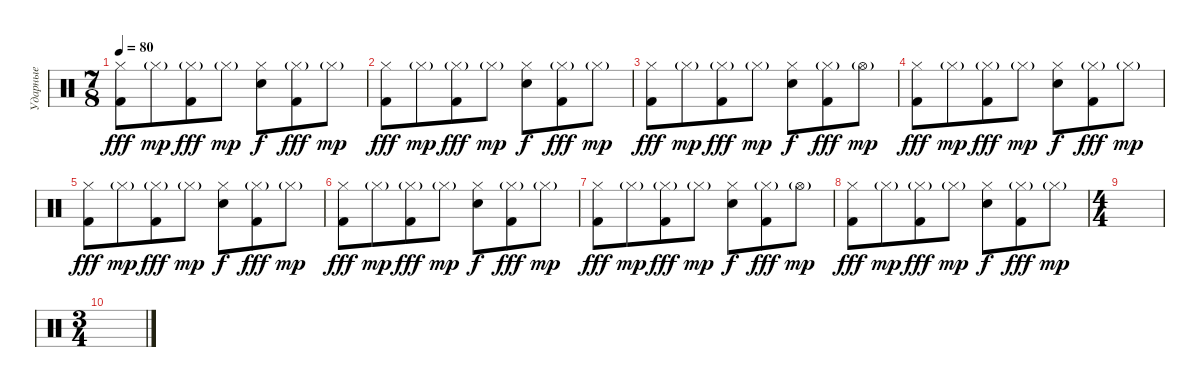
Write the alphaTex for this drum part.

\track ("Ударные" "Ударные") {instrument percussion}
\staff {score}
\articulation defaults
\ts (7 8)
\tempo 80
\clef neutral
\ks c
("Hi-Hat (closed)" "Kick (hit) 2").8{dy fff} "Hi-Hat (closed)"{g}.8{dy mp} ("Hi-Hat (closed)"{g} "Kick (hit) 2").8{dy fff} "Hi-Hat (closed)"{g}.8{dy mp} ("Hi-Hat (closed)" "Snare (hit) 2").8{dy f} ("Hi-Hat (closed)"{g} "Kick (hit) 2").8{dy fff} "Hi-Hat (closed)"{g}.8{dy mp} |
("Hi-Hat (closed)" "Kick (hit) 2").8{dy fff} "Hi-Hat (closed)"{g}.8{dy mp} ("Hi-Hat (closed)"{g} "Kick (hit) 2").8{dy fff} "Hi-Hat (closed)"{g}.8{dy mp} ("Hi-Hat (closed)" "Snare (hit) 2").8{dy f} ("Hi-Hat (closed)"{g} "Kick (hit) 2").8{dy fff} "Hi-Hat (closed)"{g}.8{dy mp} |
("Hi-Hat (closed)" "Kick (hit) 2").8{dy fff} "Hi-Hat (closed)"{g}.8{dy mp} ("Hi-Hat (closed)"{g} "Kick (hit) 2").8{dy fff} "Hi-Hat (closed)"{g}.8{dy mp} ("Hi-Hat (closed)" "Snare (hit) 2").8{dy f} ("Hi-Hat (closed)"{g} "Kick (hit) 2").8{dy fff} "Hi-Hat (open)"{g}.8{dy mp} |
("Hi-Hat (closed)" "Kick (hit) 2").8{dy fff} "Hi-Hat (closed)"{g}.8{dy mp} ("Hi-Hat (closed)"{g} "Kick (hit) 2").8{dy fff} "Hi-Hat (closed)"{g}.8{dy mp} ("Hi-Hat (closed)" "Snare (hit) 2").8{dy f} ("Hi-Hat (closed)"{g} "Kick (hit) 2").8{dy fff} "Hi-Hat (closed)"{g}.8{dy mp} |
("Hi-Hat (closed)" "Kick (hit) 2").8{dy fff} "Hi-Hat (closed)"{g}.8{dy mp} ("Hi-Hat (closed)"{g} "Kick (hit) 2").8{dy fff} "Hi-Hat (closed)"{g}.8{dy mp} ("Hi-Hat (closed)" "Snare (hit) 2").8{dy f} ("Hi-Hat (closed)"{g} "Kick (hit) 2").8{dy fff} "Hi-Hat (closed)"{g}.8{dy mp} |
("Hi-Hat (closed)" "Kick (hit) 2").8{dy fff} "Hi-Hat (closed)"{g}.8{dy mp} ("Hi-Hat (closed)"{g} "Kick (hit) 2").8{dy fff} "Hi-Hat (closed)"{g}.8{dy mp} ("Hi-Hat (closed)" "Snare (hit) 2").8{dy f} ("Hi-Hat (closed)"{g} "Kick (hit) 2").8{dy fff} "Hi-Hat (closed)"{g}.8{dy mp} |
("Hi-Hat (closed)" "Kick (hit) 2").8{dy fff} "Hi-Hat (closed)"{g}.8{dy mp} ("Hi-Hat (closed)"{g} "Kick (hit) 2").8{dy fff} "Hi-Hat (closed)"{g}.8{dy mp} ("Hi-Hat (closed)" "Snare (hit) 2").8{dy f} ("Hi-Hat (closed)"{g} "Kick (hit) 2").8{dy fff} "Hi-Hat (open)"{g}.8{dy mp} |
("Hi-Hat (closed)" "Kick (hit) 2").8{dy fff} "Hi-Hat (closed)"{g}.8{dy mp} ("Hi-Hat (closed)"{g} "Kick (hit) 2").8{dy fff} "Hi-Hat (closed)"{g}.8{dy mp} ("Hi-Hat (closed)" "Snare (hit) 2").8{dy f} ("Hi-Hat (closed)"{g} "Kick (hit) 2").8{dy fff} "Hi-Hat (closed)"{g}.8{dy mp} |
\ts (4 4)
|
\ts (3 4)
